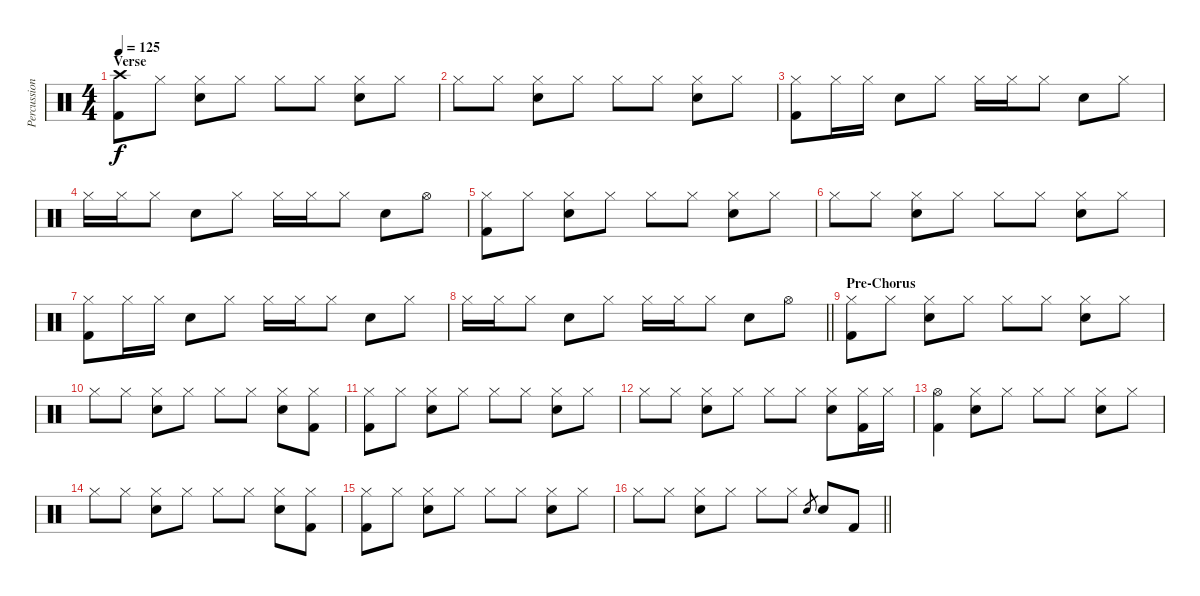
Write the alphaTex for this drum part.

\track ("Percussion" "Percussion") {instrument percussion}
\staff {score}
\articulation defaults
\ts (4 4)
\section ("" "Verse")
\tempo 125
\clef neutral
\ks c
("Crash high (hit)" "Kick (hit) 2").8{dy f} "Hi-Hat (closed)".8 ("Hi-Hat (closed)" "Electric Snare (hit)").8 "Hi-Hat (closed)".8 "Hi-Hat (closed)".8 "Hi-Hat (closed)".8 ("Hi-Hat (closed)" "Electric Snare (hit)").8 "Hi-Hat (closed)".8 |
"Hi-Hat (closed)".8 "Hi-Hat (closed)".8 ("Hi-Hat (closed)" "Electric Snare (hit)").8 "Hi-Hat (closed)".8 "Hi-Hat (closed)".8 "Hi-Hat (closed)".8 ("Hi-Hat (closed)" "Electric Snare (hit)").8 "Hi-Hat (closed)".8 |
("Hi-Hat (closed)" "Kick (hit) 2").8 "Hi-Hat (closed)".16 "Hi-Hat (closed)".16 "Electric Snare (hit)".8 "Hi-Hat (closed)".8 "Hi-Hat (closed)".16 "Hi-Hat (closed)".16 "Hi-Hat (closed)".8 "Electric Snare (hit)".8 "Hi-Hat (closed)".8 |
"Hi-Hat (closed)".16 "Hi-Hat (closed)".16 "Hi-Hat (closed)".8 "Electric Snare (hit)".8 "Hi-Hat (closed)".8 "Hi-Hat (closed)".16 "Hi-Hat (closed)".16 "Hi-Hat (closed)".8 "Electric Snare (hit)".8 "Hi-Hat (open)".8 |
("Hi-Hat (closed)" "Kick (hit) 2").8 "Hi-Hat (closed)".8 ("Hi-Hat (closed)" "Electric Snare (hit)").8 "Hi-Hat (closed)".8 "Hi-Hat (closed)".8 "Hi-Hat (closed)".8 ("Hi-Hat (closed)" "Electric Snare (hit)").8 "Hi-Hat (closed)".8 |
"Hi-Hat (closed)".8 "Hi-Hat (closed)".8 ("Hi-Hat (closed)" "Electric Snare (hit)").8 "Hi-Hat (closed)".8 "Hi-Hat (closed)".8 "Hi-Hat (closed)".8 ("Hi-Hat (closed)" "Electric Snare (hit)").8 "Hi-Hat (closed)".8 |
("Hi-Hat (closed)" "Kick (hit) 2").8 "Hi-Hat (closed)".16 "Hi-Hat (closed)".16 "Electric Snare (hit)".8 "Hi-Hat (closed)".8 "Hi-Hat (closed)".16 "Hi-Hat (closed)".16 "Hi-Hat (closed)".8 "Electric Snare (hit)".8 "Hi-Hat (closed)".8 |
\barLineRight lightlight "Hi-Hat (closed)".16 "Hi-Hat (closed)".16 "Hi-Hat (closed)".8 "Electric Snare (hit)".8 "Hi-Hat (closed)".8 "Hi-Hat (closed)".16 "Hi-Hat (closed)".16 "Hi-Hat (closed)".8 "Electric Snare (hit)".8 "Hi-Hat (open)".8
|
\section ("" "Pre-Chorus")
("Hi-Hat (closed)" "Kick (hit) 2").8 "Hi-Hat (closed)".8 ("Hi-Hat (closed)" "Electric Snare (hit)").8 "Hi-Hat (closed)".8 "Hi-Hat (closed)".8 "Hi-Hat (closed)".8 ("Hi-Hat (closed)" "Electric Snare (hit)").8 "Hi-Hat (closed)".8 |
"Hi-Hat (closed)".8 "Hi-Hat (closed)".8 ("Hi-Hat (closed)" "Electric Snare (hit)").8 "Hi-Hat (closed)".8 "Hi-Hat (closed)".8 "Hi-Hat (closed)".8 ("Hi-Hat (closed)" "Electric Snare (hit)").8 ("Hi-Hat (closed)" "Kick (hit) 2").8 |
("Hi-Hat (closed)" "Kick (hit) 2").8 "Hi-Hat (closed)".8 ("Hi-Hat (closed)" "Electric Snare (hit)").8 "Hi-Hat (closed)".8 "Hi-Hat (closed)".8 "Hi-Hat (closed)".8 ("Hi-Hat (closed)" "Electric Snare (hit)").8 "Hi-Hat (closed)".8 |
"Hi-Hat (closed)".8 "Hi-Hat (closed)".8 ("Hi-Hat (closed)" "Electric Snare (hit)").8 "Hi-Hat (closed)".8 "Hi-Hat (closed)".8 "Hi-Hat (closed)".8 ("Hi-Hat (closed)" "Electric Snare (hit)").8 ("Hi-Hat (closed)" "Kick (hit) 2").16 "Hi-Hat (closed)".16 |
("Hi-Hat (open)" "Kick (hit) 2").4 ("Hi-Hat (closed)" "Electric Snare (hit)").8 "Hi-Hat (closed)".8 "Hi-Hat (closed)".8 "Hi-Hat (closed)".8 ("Hi-Hat (closed)" "Electric Snare (hit)").8 "Hi-Hat (closed)".8 |
"Hi-Hat (closed)".8 "Hi-Hat (closed)".8 ("Hi-Hat (closed)" "Electric Snare (hit)").8 "Hi-Hat (closed)".8 "Hi-Hat (closed)".8 "Hi-Hat (closed)".8 ("Hi-Hat (closed)" "Electric Snare (hit)").8 ("Hi-Hat (closed)" "Kick (hit) 2").8 |
("Hi-Hat (closed)" "Kick (hit) 2").8 "Hi-Hat (closed)".8 ("Hi-Hat (closed)" "Electric Snare (hit)").8 "Hi-Hat (closed)".8 "Hi-Hat (closed)".8 "Hi-Hat (closed)".8 ("Hi-Hat (closed)" "Electric Snare (hit)").8 "Hi-Hat (closed)".8 |
\barLineRight lightlight "Hi-Hat (closed)".8 "Hi-Hat (closed)".8
("Hi-Hat (closed)" "Electric Snare (hit)").8 "Hi-Hat (closed)".8 "Hi-Hat (closed)".8 "Hi-Hat (closed)".8 "Electric Snare (hit)".8{gr} "Electric Snare (hit)".8 "Kick (hit) 2".8
